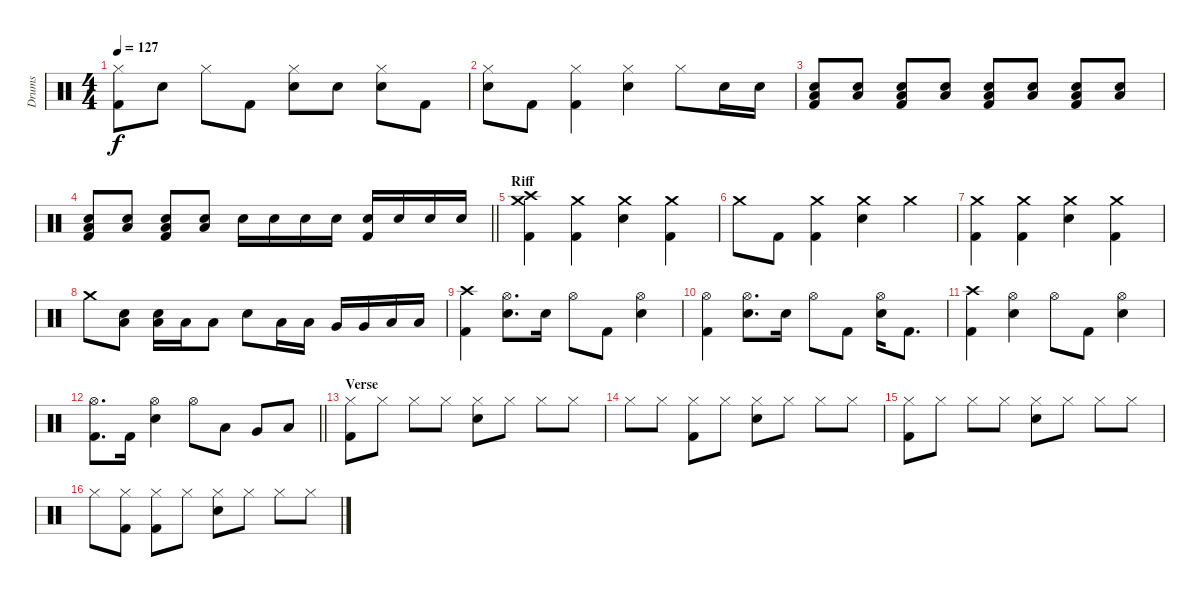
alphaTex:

\track ("Drums" "Drums") {instrument percussion}
\staff {score}
\articulation defaults
\ts (4 4)
\tempo 127
\clef neutral
\ks c
("Hi-Hat (closed)" "Kick (hit) 2").8{dy f} "Electric Snare (hit)".8 "Hi-Hat (closed)".8 "Kick (hit) 2".8 ("Hi-Hat (closed)" "Electric Snare (hit)").8 "Electric Snare (hit)".8 ("Hi-Hat (closed)" "Electric Snare (hit)").8 "Kick (hit) 2".8 |
("Hi-Hat (closed)" "Electric Snare (hit)").8 "Kick (hit) 2".8 ("Hi-Hat (closed)" "Kick (hit) 2").4 ("Hi-Hat (closed)" "Electric Snare (hit)").4 "Hi-Hat (closed)".8 "Electric Snare (hit)".16 "Electric Snare (hit)".16 |
("Low Floor Tom (hit)" "Electric Snare (hit)" "Kick (hit) 2").8 ("Low Floor Tom (hit)" "Electric Snare (hit)").8 ("Low Floor Tom (hit)" "Electric Snare (hit)" "Kick (hit) 2").8 ("Low Floor Tom (hit)" "Electric Snare (hit)").8 ("Low Floor Tom (hit)" "Electric Snare (hit)" "Kick (hit) 2").8 ("Low Floor Tom (hit)" "Electric Snare (hit)").8 ("Low Floor Tom (hit)" "Electric Snare (hit)" "Kick (hit) 2").8 ("Low Floor Tom (hit)" "Electric Snare (hit)").8 |
\barLineRight lightlight
("Low Floor Tom (hit)" "Electric Snare (hit)" "Kick (hit) 2").8 ("Low Floor Tom (hit)" "Electric Snare (hit)").8 ("Low Floor Tom (hit)" "Electric Snare (hit)" "Kick (hit) 2").8 ("Low Floor Tom (hit)" "Electric Snare (hit)").8 "Electric Snare (hit)".16 "Electric Snare (hit)".16 "Electric Snare (hit)".16 "Electric Snare (hit)".16 ("Electric Snare (hit)" "Kick (hit) 2").16 "Electric Snare (hit)".16 "Electric Snare (hit)".16 "Electric Snare (hit)".16 |
\section ("" "Riff")
("Crash medium (hit)" "Crash high (hit)" "Kick (hit) 2").4 ("Crash medium (hit)" "Kick (hit) 2").4 ("Crash medium (hit)" "Electric Snare (hit)").4 ("Crash medium (hit)" "Kick (hit) 2").4 |
"Crash medium (hit)".8 "Kick (hit) 2".8 ("Crash medium (hit)" "Kick (hit) 2").4 ("Crash medium (hit)" "Electric Snare (hit)").4 "Crash medium (hit)".4 |
("Crash medium (hit)" "Kick (hit) 2").4 ("Crash medium (hit)" "Kick (hit) 2").4 ("Crash medium (hit)" "Electric Snare (hit)").4 ("Crash medium (hit)" "Kick (hit) 2").4 |
"Crash medium (hit)".8 ("Low Floor Tom (hit)" "Electric Snare (hit)").8 ("Low Floor Tom (hit)" "Electric Snare (hit)").16 "Low Tom (hit)".16 "Low Tom (hit)".8 "Electric Snare (hit)".8 "Low Tom (hit)".16 "Low Tom (hit)".16 "Very Low Tom (hit)".16 "Very Low Tom (hit)".16 "Low Floor Tom (hit)".16 "Low Floor Tom (hit)".16 |
("Crash high (hit)" "Kick (hit) 2").4 ("Hi-Hat (open)" "Electric Snare (hit)").8{d} "Electric Snare (hit)".16 "Hi-Hat (open)".8 "Kick (hit) 2".8 ("Hi-Hat (open)" "Electric Snare (hit)").4 |
("Hi-Hat (open)" "Kick (hit) 2").4 ("Hi-Hat (open)" "Electric Snare (hit)").8{d} "Electric Snare (hit)".16 "Hi-Hat (open)".8 "Kick (hit) 2".8 ("Hi-Hat (open)" "Electric Snare (hit)").16 "Kick (hit) 2".8{d} |
("Crash high (hit)" "Kick (hit) 2").4 ("Hi-Hat (open)" "Electric Snare (hit)").4 "Hi-Hat (open)".8 "Kick (hit) 2".8 ("Hi-Hat (open)" "Electric Snare (hit)").4 |
\barLineRight lightlight
("Hi-Hat (open)" "Kick (hit) 2").8{d} "Kick (hit) 2".16 ("Hi-Hat (open)" "Electric Snare (hit)").4 "Hi-Hat (open)".8 "Low Tom (hit)".8 "Very Low Tom (hit)".8 "Low Floor Tom (hit)".8 |
\section ("" "Verse")
("Hi-Hat (closed)" "Kick (hit) 2").8 "Hi-Hat (closed)".8 "Hi-Hat (closed)".8 "Hi-Hat (closed)".8 ("Hi-Hat (closed)" "Electric Snare (hit)").8 "Hi-Hat (closed)".8 "Hi-Hat (closed)".8 "Hi-Hat (closed)".8 |
"Hi-Hat (closed)".8 "Hi-Hat (closed)".8 ("Hi-Hat (closed)" "Kick (hit) 2").8 "Hi-Hat (closed)".8 ("Hi-Hat (closed)" "Electric Snare (hit)").8 "Hi-Hat (closed)".8 "Hi-Hat (closed)".8 "Hi-Hat (closed)".8 |
("Hi-Hat (closed)" "Kick (hit) 2").8 "Hi-Hat (closed)".8 "Hi-Hat (closed)".8 "Hi-Hat (closed)".8 ("Hi-Hat (closed)" "Electric Snare (hit)").8 "Hi-Hat (closed)".8 "Hi-Hat (closed)".8 "Hi-Hat (closed)".8 |
"Hi-Hat (closed)".8 ("Hi-Hat (closed)" "Kick (hit) 2").8 ("Hi-Hat (closed)" "Kick (hit) 2").8 "Hi-Hat (closed)".8 ("Hi-Hat (closed)" "Electric Snare (hit)").8 "Hi-Hat (closed)".8 "Hi-Hat (closed)".8 "Hi-Hat (closed)".8
